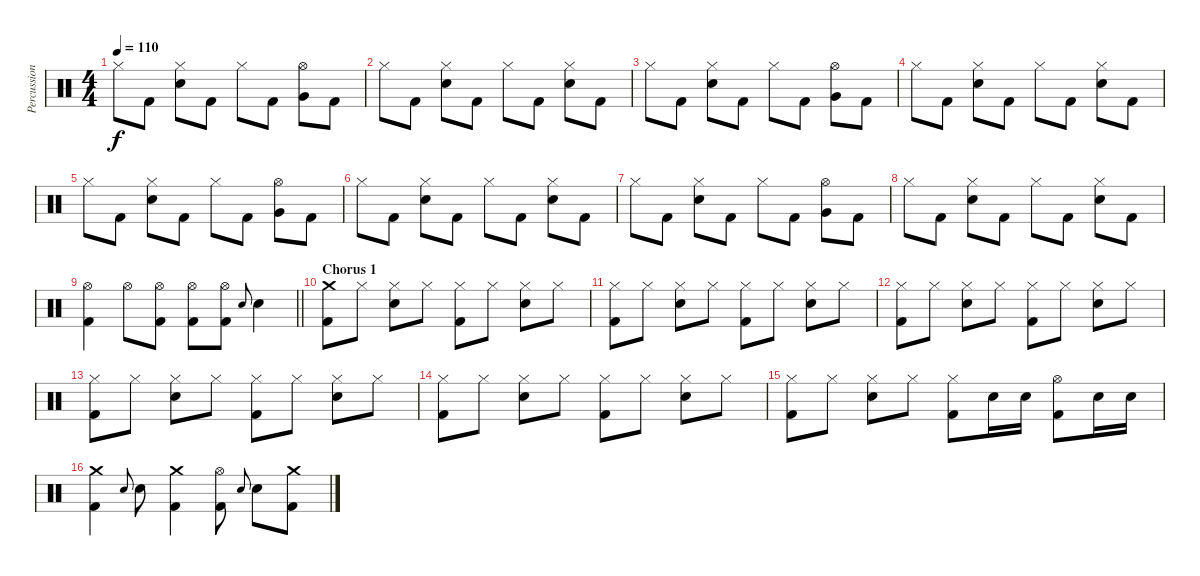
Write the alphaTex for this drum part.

\track ("Percussion" "Percussion") {instrument percussion}
\staff {score}
\articulation defaults
\ts (4 4)
\tempo 110
\clef neutral
\ks aminor "Hi-Hat (closed)".8{dy f} "Kick (hit) 2".8
("Hi-Hat (closed)" "Electric Snare (hit)").8 "Kick (hit) 2".8 "Hi-Hat (closed)".8 "Kick (hit) 2".8 ("Hi-Hat (open)" "Very Low Tom (hit)").8 "Kick (hit) 2".8 |
"Hi-Hat (closed)".8 "Kick (hit) 2".8 ("Hi-Hat (closed)" "Electric Snare (hit)").8 "Kick (hit) 2".8 "Hi-Hat (closed)".8 "Kick (hit) 2".8 ("Hi-Hat (closed)" "Electric Snare (hit)").8 "Kick (hit) 2".8 |
"Hi-Hat (closed)".8 "Kick (hit) 2".8 ("Hi-Hat (closed)" "Electric Snare (hit)").8 "Kick (hit) 2".8 "Hi-Hat (closed)".8 "Kick (hit) 2".8 ("Hi-Hat (open)" "Very Low Tom (hit)").8 "Kick (hit) 2".8 |
"Hi-Hat (closed)".8 "Kick (hit) 2".8 ("Hi-Hat (closed)" "Electric Snare (hit)").8 "Kick (hit) 2".8 "Hi-Hat (closed)".8 "Kick (hit) 2".8 ("Hi-Hat (closed)" "Electric Snare (hit)").8 "Kick (hit) 2".8 |
"Hi-Hat (closed)".8 "Kick (hit) 2".8 ("Hi-Hat (closed)" "Electric Snare (hit)").8 "Kick (hit) 2".8 "Hi-Hat (closed)".8 "Kick (hit) 2".8 ("Hi-Hat (open)" "Very Low Tom (hit)").8 "Kick (hit) 2".8 |
"Hi-Hat (closed)".8 "Kick (hit) 2".8 ("Hi-Hat (closed)" "Electric Snare (hit)").8 "Kick (hit) 2".8 "Hi-Hat (closed)".8 "Kick (hit) 2".8 ("Hi-Hat (closed)" "Electric Snare (hit)").8 "Kick (hit) 2".8 |
"Hi-Hat (closed)".8 "Kick (hit) 2".8 ("Hi-Hat (closed)" "Electric Snare (hit)").8 "Kick (hit) 2".8 "Hi-Hat (closed)".8 "Kick (hit) 2".8 ("Hi-Hat (open)" "Very Low Tom (hit)").8 "Kick (hit) 2".8 |
"Hi-Hat (closed)".8 "Kick (hit) 2".8 ("Hi-Hat (closed)" "Electric Snare (hit)").8 "Kick (hit) 2".8 "Hi-Hat (closed)".8 "Kick (hit) 2".8 ("Hi-Hat (closed)" "Electric Snare (hit)").8 "Kick (hit) 2".8 |
\barLineRight lightlight
("Hi-Hat (open)" "Kick (hit) 2").4 "Hi-Hat (open)".8 ("Hi-Hat (open)" "Kick (hit) 2").8 ("Hi-Hat (open)" "Kick (hit) 2").8 ("Hi-Hat (open)" "Kick (hit) 2").8 "Electric Snare (hit)".8{gr onbeat} "Electric Snare (hit)".4 |
\section ("" "Chorus 1")
("Crash medium (hit)" "Kick (hit) 2").8 "Hi-Hat (closed)".8 ("Hi-Hat (closed)" "Electric Snare (hit)").8 "Hi-Hat (closed)".8 ("Hi-Hat (closed)" "Kick (hit) 2").8 "Hi-Hat (closed)".8 ("Hi-Hat (closed)" "Electric Snare (hit)").8 "Hi-Hat (closed)".8 |
("Hi-Hat (closed)" "Kick (hit) 2").8 "Hi-Hat (closed)".8 ("Hi-Hat (closed)" "Electric Snare (hit)").8 "Hi-Hat (closed)".8 ("Hi-Hat (closed)" "Kick (hit) 2").8 "Hi-Hat (closed)".8 ("Hi-Hat (closed)" "Electric Snare (hit)").8 "Hi-Hat (closed)".8 |
("Hi-Hat (closed)" "Kick (hit) 2").8 "Hi-Hat (closed)".8 ("Hi-Hat (closed)" "Electric Snare (hit)").8 "Hi-Hat (closed)".8 ("Hi-Hat (closed)" "Kick (hit) 2").8 "Hi-Hat (closed)".8 ("Hi-Hat (closed)" "Electric Snare (hit)").8 "Hi-Hat (closed)".8 |
("Hi-Hat (closed)" "Kick (hit) 2").8 "Hi-Hat (closed)".8 ("Hi-Hat (closed)" "Electric Snare (hit)").8 "Hi-Hat (closed)".8 ("Hi-Hat (closed)" "Kick (hit) 2").8 "Hi-Hat (closed)".8 ("Hi-Hat (closed)" "Electric Snare (hit)").8 "Hi-Hat (closed)".8 |
("Hi-Hat (closed)" "Kick (hit) 2").8 "Hi-Hat (closed)".8 ("Hi-Hat (closed)" "Electric Snare (hit)").8 "Hi-Hat (closed)".8 ("Hi-Hat (closed)" "Kick (hit) 2").8 "Hi-Hat (closed)".8 ("Hi-Hat (closed)" "Electric Snare (hit)").8 "Hi-Hat (closed)".8 |
("Hi-Hat (closed)" "Kick (hit) 2").8 "Hi-Hat (closed)".8 ("Hi-Hat (closed)" "Electric Snare (hit)").8 "Hi-Hat (closed)".8 ("Hi-Hat (closed)" "Kick (hit) 2").8 "Electric Snare (hit)".16 "Electric Snare (hit)".16 ("Hi-Hat (open)" "Kick (hit) 2").8 "Electric Snare (hit)".16 "Electric Snare (hit)".16 |
("Crash medium (hit)" "Kick (hit) 2").4 "Electric Snare (hit)".8{gr onbeat} "Electric Snare (hit)".8 ("Crash medium (hit)" "Kick (hit) 2").4 ("Hi-Hat (open)" "Kick (hit) 2").8 "Electric Snare (hit)".8{gr onbeat} "Electric Snare (hit)".8 ("Crash medium (hit)" "Kick (hit) 2").8
